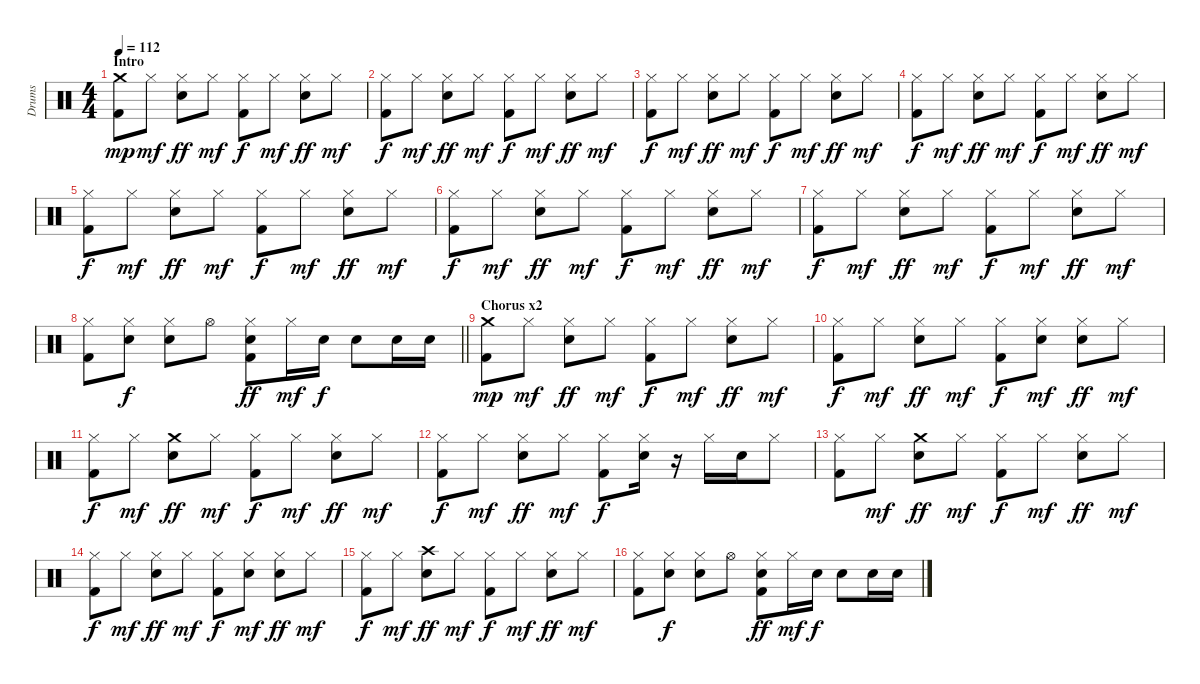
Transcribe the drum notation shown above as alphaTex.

\track ("Drums" "Drums") {instrument percussion}
\staff {score}
\articulation defaults
\ts (4 4)
\section ("" "Intro")
\tempo 112
\clef neutral
\ks c
("Crash medium (hit)" "Kick (hit) 2").8{dy mp} "Hi-Hat (closed)".8{dy mf} ("Hi-Hat (closed)" "Snare (hit) 2").8{dy ff} "Hi-Hat (closed)".8{dy mf} ("Hi-Hat (closed)" "Kick (hit) 2").8{dy f} "Hi-Hat (closed)".8{dy mf} ("Hi-Hat (closed)" "Snare (hit) 2").8{dy ff} "Hi-Hat (closed)".8{dy mf} |
("Hi-Hat (closed)" "Kick (hit) 2").8{dy f} "Hi-Hat (closed)".8{dy mf} ("Hi-Hat (closed)" "Snare (hit) 2").8{dy ff} "Hi-Hat (closed)".8{dy mf} ("Hi-Hat (closed)" "Kick (hit) 2").8{dy f} "Hi-Hat (closed)".8{dy mf} ("Hi-Hat (closed)" "Snare (hit) 2").8{dy ff} "Hi-Hat (closed)".8{dy mf} |
("Hi-Hat (closed)" "Kick (hit) 2").8{dy f} "Hi-Hat (closed)".8{dy mf} ("Hi-Hat (closed)" "Snare (hit) 2").8{dy ff} "Hi-Hat (closed)".8{dy mf} ("Hi-Hat (closed)" "Kick (hit) 2").8{dy f} "Hi-Hat (closed)".8{dy mf} ("Hi-Hat (closed)" "Snare (hit) 2").8{dy ff} "Hi-Hat (closed)".8{dy mf} |
("Hi-Hat (closed)" "Kick (hit) 2").8{dy f} "Hi-Hat (closed)".8{dy mf} ("Hi-Hat (closed)" "Snare (hit) 2").8{dy ff} "Hi-Hat (closed)".8{dy mf} ("Hi-Hat (closed)" "Kick (hit) 2").8{dy f} "Hi-Hat (closed)".8{dy mf} ("Hi-Hat (closed)" "Snare (hit) 2").8{dy ff} "Hi-Hat (closed)".8{dy mf} |
("Hi-Hat (closed)" "Kick (hit) 2").8{dy f} "Hi-Hat (closed)".8{dy mf} ("Hi-Hat (closed)" "Snare (hit) 2").8{dy ff} "Hi-Hat (closed)".8{dy mf} ("Hi-Hat (closed)" "Kick (hit) 2").8{dy f} "Hi-Hat (closed)".8{dy mf} ("Hi-Hat (closed)" "Snare (hit) 2").8{dy ff} "Hi-Hat (closed)".8{dy mf} |
("Hi-Hat (closed)" "Kick (hit) 2").8{dy f} "Hi-Hat (closed)".8{dy mf} ("Hi-Hat (closed)" "Snare (hit) 2").8{dy ff} "Hi-Hat (closed)".8{dy mf} ("Hi-Hat (closed)" "Kick (hit) 2").8{dy f} "Hi-Hat (closed)".8{dy mf} ("Hi-Hat (closed)" "Snare (hit) 2").8{dy ff} "Hi-Hat (closed)".8{dy mf} |
("Hi-Hat (closed)" "Kick (hit) 2").8{dy f} "Hi-Hat (closed)".8{dy mf} ("Hi-Hat (closed)" "Snare (hit) 2").8{dy ff} "Hi-Hat (closed)".8{dy mf} ("Hi-Hat (closed)" "Kick (hit) 2").8{dy f} "Hi-Hat (closed)".8{dy mf} ("Hi-Hat (closed)" "Snare (hit) 2").8{dy ff} "Hi-Hat (closed)".8{dy mf} |
\barLineRight lightlight
("Hi-Hat (closed)" "Kick (hit) 2").8 ("Hi-Hat (closed)" "Snare (hit) 2").8{dy f} ("Hi-Hat (closed)" "Snare (hit) 2").8 "Hi-Hat (open)".8 ("Hi-Hat (closed)" "Snare (hit) 2" "Kick (hit) 2").8{dy ff} "Hi-Hat (closed)".16{dy mf} "Snare (hit) 2".16{dy f} "Snare (hit) 2".8 "Snare (hit) 2".16 "Snare (hit) 2".16 |
\section ("" "Chorus x2")
("Crash medium (hit)" "Kick (hit) 2").8{dy mp} "Hi-Hat (closed)".8{dy mf} ("Hi-Hat (closed)" "Snare (hit) 2").8{dy ff} "Hi-Hat (closed)".8{dy mf} ("Hi-Hat (closed)" "Kick (hit) 2").8{dy f} "Hi-Hat (closed)".8{dy mf} ("Hi-Hat (closed)" "Snare (hit) 2").8{dy ff} "Hi-Hat (closed)".8{dy mf} |
("Hi-Hat (closed)" "Kick (hit) 2").8{dy f} "Hi-Hat (closed)".8{dy mf} ("Hi-Hat (closed)" "Snare (hit) 2").8{dy ff} "Hi-Hat (closed)".8{dy mf} ("Hi-Hat (closed)" "Kick (hit) 2").8{dy f} ("Hi-Hat (closed)" "Snare (hit) 2").8{dy mf} ("Hi-Hat (closed)" "Snare (hit) 2").8{dy ff} "Hi-Hat (closed)".8{dy mf} |
("Hi-Hat (closed)" "Kick (hit) 2").8{dy f} "Hi-Hat (closed)".8{dy mf} ("Crash medium (hit)" "Snare (hit) 2").8{dy ff} "Hi-Hat (closed)".8{dy mf} ("Hi-Hat (closed)" "Kick (hit) 2").8{dy f} "Hi-Hat (closed)".8{dy mf} ("Hi-Hat (closed)" "Snare (hit) 2").8{dy ff} "Hi-Hat (closed)".8{dy mf} |
("Hi-Hat (closed)" "Kick (hit) 2").8{dy f} "Hi-Hat (closed)".8{dy mf} ("Hi-Hat (closed)" "Snare (hit) 2").8{dy ff} "Hi-Hat (closed)".8{dy mf} ("Hi-Hat (closed)" "Kick (hit) 2").8{dy f} ("Hi-Hat (closed)" "Snare (hit) 2").16 r.16 "Hi-Hat (closed)".16 "Snare (hit) 2".16 "Hi-Hat (closed)".8 |
("Hi-Hat (closed)" "Kick (hit) 2").8 "Hi-Hat (closed)".8{dy mf} ("Crash medium (hit)" "Snare (hit) 2").8{dy ff} "Hi-Hat (closed)".8{dy mf} ("Hi-Hat (closed)" "Kick (hit) 2").8{dy f} "Hi-Hat (closed)".8{dy mf} ("Hi-Hat (closed)" "Snare (hit) 2").8{dy ff} "Hi-Hat (closed)".8{dy mf} |
("Hi-Hat (closed)" "Kick (hit) 2").8{dy f} "Hi-Hat (closed)".8{dy mf} ("Hi-Hat (closed)" "Snare (hit) 2").8{dy ff} "Hi-Hat (closed)".8{dy mf} ("Hi-Hat (closed)" "Kick (hit) 2").8{dy f} ("Hi-Hat (closed)" "Snare (hit) 2").8{dy mf} ("Hi-Hat (closed)" "Snare (hit) 2").8{dy ff} "Hi-Hat (closed)".8{dy mf} |
("Hi-Hat (closed)" "Kick (hit) 2").8{dy f} "Hi-Hat (closed)".8{dy mf} ("Crash high (hit)" "Snare (hit) 2").8{dy ff} "Hi-Hat (closed)".8{dy mf} ("Hi-Hat (closed)" "Kick (hit) 2").8{dy f} "Hi-Hat (closed)".8{dy mf} ("Hi-Hat (closed)" "Snare (hit) 2").8{dy ff} "Hi-Hat (closed)".8{dy mf} |
("Hi-Hat (closed)" "Kick (hit) 2").8 ("Hi-Hat (closed)" "Snare (hit) 2").8{dy f} ("Hi-Hat (closed)" "Snare (hit) 2").8 "Hi-Hat (open)".8 ("Hi-Hat (closed)" "Snare (hit) 2" "Kick (hit) 2").8{dy ff} "Hi-Hat (closed)".16{dy mf} "Snare (hit) 2".16{dy f} "Snare (hit) 2".8 "Snare (hit) 2".16 "Snare (hit) 2".16
